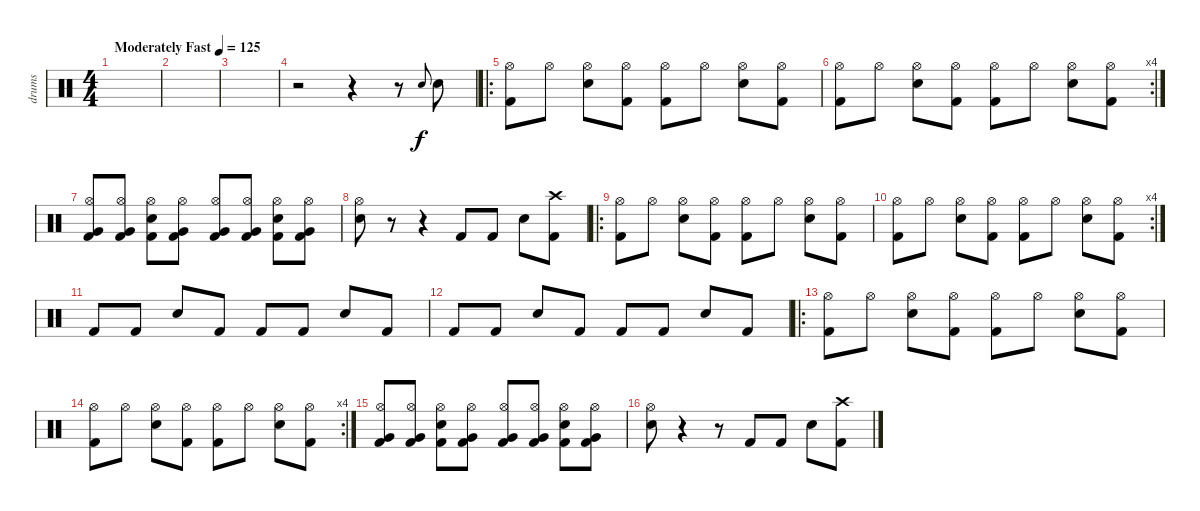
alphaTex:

\track ("drums" "drums") {instrument percussion}
\staff {score}
\articulation defaults
\ts (4 4)
\tempo (125 "Moderately Fast")
\clef neutral
\ks c
|
|
|
r.2 r.4 r.8 "Snare (hit) 2"{h}.8{gr onbeat} "Electric Snare (hit)".8 |
\ro
("Kick (hit) 2" "Hi-Hat (open)").8 "Hi-Hat (open)".8 ("Electric Snare (hit)" "Hi-Hat (open)").8 ("Kick (hit) 2" "Hi-Hat (open)").8 ("Kick (hit) 2" "Hi-Hat (open)").8 "Hi-Hat (open)".8 ("Electric Snare (hit)" "Hi-Hat (open)").8 ("Kick (hit) 2" "Hi-Hat (open)").8 |
\rc 4
("Kick (hit) 2" "Hi-Hat (open)").8 "Hi-Hat (open)".8 ("Electric Snare (hit)" "Hi-Hat (open)").8 ("Kick (hit) 2" "Hi-Hat (open)").8 ("Kick (hit) 2" "Hi-Hat (open)").8 "Hi-Hat (open)".8 ("Electric Snare (hit)" "Hi-Hat (open)").8 ("Kick (hit) 2" "Hi-Hat (open)").8 |
("Very Low Tom (hit)" "Kick (hit) 2" "Hi-Hat (open)").8 ("Very Low Tom (hit)" "Kick (hit) 2" "Hi-Hat (open)").8 ("Electric Snare (hit)" "Kick (hit) 2" "Hi-Hat (open)").8 ("Very Low Tom (hit)" "Kick (hit) 2" "Hi-Hat (open)").8 ("Very Low Tom (hit)" "Kick (hit) 2" "Hi-Hat (open)").8 ("Very Low Tom (hit)" "Kick (hit) 2" "Hi-Hat (open)").8 ("Electric Snare (hit)" "Kick (hit) 2" "Hi-Hat (open)").8 ("Very Low Tom (hit)" "Kick (hit) 2" "Hi-Hat (open)").8 |
("Electric Snare (hit)" "Hi-Hat (open)").8 r.8 r.4 "Kick (hit) 2".8 "Kick (hit) 2".8 "Electric Snare (hit)".8 ("Kick (hit) 2" "Crash high (hit)").8 |
\ro
("Kick (hit) 2" "Hi-Hat (open)").8 "Hi-Hat (open)".8 ("Electric Snare (hit)" "Hi-Hat (open)").8 ("Kick (hit) 2" "Hi-Hat (open)").8 ("Kick (hit) 2" "Hi-Hat (open)").8 "Hi-Hat (open)".8 ("Electric Snare (hit)" "Hi-Hat (open)").8 ("Kick (hit) 2" "Hi-Hat (open)").8 |
\rc 4
("Kick (hit) 2" "Hi-Hat (open)").8 "Hi-Hat (open)".8 ("Electric Snare (hit)" "Hi-Hat (open)").8 ("Kick (hit) 2" "Hi-Hat (open)").8 ("Kick (hit) 2" "Hi-Hat (open)").8 "Hi-Hat (open)".8 ("Electric Snare (hit)" "Hi-Hat (open)").8 ("Kick (hit) 2" "Hi-Hat (open)").8 |
"Kick (hit) 2".8 "Kick (hit) 2".8 "Electric Snare (hit)".8 "Kick (hit) 2".8 "Kick (hit) 2".8 "Kick (hit) 2".8 "Electric Snare (hit)".8 "Kick (hit) 2".8 |
"Kick (hit) 2".8 "Kick (hit) 2".8 "Electric Snare (hit)".8 "Kick (hit) 2".8 "Kick (hit) 2".8 "Kick (hit) 2".8 "Electric Snare (hit)".8 "Kick (hit) 2".8 |
\ro
("Kick (hit) 2" "Hi-Hat (open)").8 "Hi-Hat (open)".8 ("Electric Snare (hit)" "Hi-Hat (open)").8 ("Kick (hit) 2" "Hi-Hat (open)").8 ("Kick (hit) 2" "Hi-Hat (open)").8 "Hi-Hat (open)".8 ("Electric Snare (hit)" "Hi-Hat (open)").8 ("Kick (hit) 2" "Hi-Hat (open)").8 |
\rc 4
("Kick (hit) 2" "Hi-Hat (open)").8 "Hi-Hat (open)".8 ("Electric Snare (hit)" "Hi-Hat (open)").8 ("Kick (hit) 2" "Hi-Hat (open)").8 ("Kick (hit) 2" "Hi-Hat (open)").8 "Hi-Hat (open)".8 ("Electric Snare (hit)" "Hi-Hat (open)").8 ("Kick (hit) 2" "Hi-Hat (open)").8 |
("Very Low Tom (hit)" "Kick (hit) 2" "Hi-Hat (open)").8 ("Very Low Tom (hit)" "Kick (hit) 2" "Hi-Hat (open)").8 ("Electric Snare (hit)" "Kick (hit) 2" "Hi-Hat (open)").8 ("Very Low Tom (hit)" "Kick (hit) 2" "Hi-Hat (open)").8 ("Very Low Tom (hit)" "Kick (hit) 2" "Hi-Hat (open)").8 ("Very Low Tom (hit)" "Kick (hit) 2" "Hi-Hat (open)").8 ("Electric Snare (hit)" "Kick (hit) 2" "Hi-Hat (open)").8 ("Very Low Tom (hit)" "Kick (hit) 2" "Hi-Hat (open)").8 |
("Electric Snare (hit)" "Hi-Hat (open)").8 r.4 r.8 "Kick (hit) 2".8 "Kick (hit) 2".8 "Electric Snare (hit)".8 ("Kick (hit) 2" "Crash high (hit)").8
